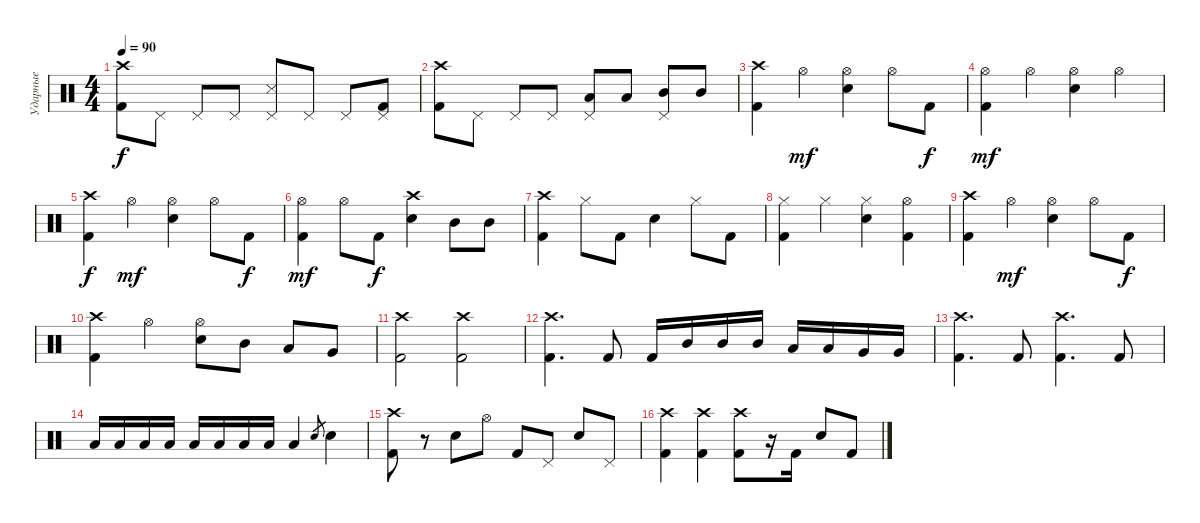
\track ("Ударные" "Ударные") {instrument percussion}
\staff {score}
\articulation defaults
\ts (4 4)
\tempo 90
\clef neutral
\ks c
("Crash high (hit)" "Kick (hit) 2").8{dy f} "Pedal Hi-Hat (hit)".8 "Pedal Hi-Hat (hit)".8 "Pedal Hi-Hat (hit)".8 ("Pedal Hi-Hat (hit)" "Snare (side stick) 3").8 "Pedal Hi-Hat (hit)".8 "Pedal Hi-Hat (hit)".8 ("Pedal Hi-Hat (hit)" "Kick (hit) 2").8 |
("Crash high (hit)" "Kick (hit) 2").8 "Pedal Hi-Hat (hit)".8 "Pedal Hi-Hat (hit)".8 "Pedal Hi-Hat (hit)".8 ("Pedal Hi-Hat (hit)" "Low Tom (hit)").8 "Low Tom (hit)".8 ("Pedal Hi-Hat (hit)" "Mid Tom (hit)").8 "Mid Tom (hit)".8 |
("Crash high (hit)" "Kick (hit) 2").4 "Hi-Hat (open)".4{dy mf} ("Hi-Hat (open)" "Snare (hit) 2").4 "Hi-Hat (open)".8 "Kick (hit) 2".8{dy f} |
("Hi-Hat (open)" "Kick (hit) 2").4{dy mf} "Hi-Hat (open)".4 ("Hi-Hat (open)" "Snare (hit) 2").4 "Hi-Hat (open)".4 |
("Crash high (hit)" "Kick (hit) 2").4{dy f} "Hi-Hat (open)".4{dy mf} ("Hi-Hat (open)" "Snare (hit) 2").4 "Hi-Hat (open)".8 "Kick (hit) 2".8{dy f} |
("Hi-Hat (open)" "Kick (hit) 2").4{dy mf} "Hi-Hat (open)".8 "Kick (hit) 2".8{dy f} ("Crash high (hit)" "Snare (hit) 2").4 "Mid Tom (hit)".8 "Mid Tom (hit)".8 |
("Crash high (hit)" "Kick (hit) 2").4 "Hi-Hat (closed)".8 "Kick (hit) 2".8 "Snare (hit) 2".4 "Hi-Hat (closed)".8 "Kick (hit) 2".8 |
("Hi-Hat (closed)" "Kick (hit) 2").4 "Hi-Hat (closed)".4 ("Hi-Hat (closed)" "Snare (hit) 2").4 ("Hi-Hat (open)" "Kick (hit) 2").4 |
("Crash high (hit)" "Kick (hit) 2").4 "Hi-Hat (open)".4{dy mf} ("Hi-Hat (open)" "Snare (hit) 2").4 "Hi-Hat (open)".8 "Kick (hit) 2".8{dy f} |
("Crash high (hit)" "Kick (hit) 2").4 "Hi-Hat (open)".4 ("Hi-Hat (open)" "Snare (hit) 2").8 "Mid Tom (hit)".8 "Low Tom (hit)".8 "Very Low Tom (hit)".8 |
("Crash high (hit)" "Kick (hit) 2").2 ("Crash high (hit)" "Kick (hit) 2").2 |
("Crash high (hit)" "Kick (hit) 2").4{d} "Kick (hit) 2".8 "Kick (hit) 2".16 "Mid Tom (hit)".16 "Mid Tom (hit)".16 "Mid Tom (hit)".16 "Low Tom (hit)".16 "Low Tom (hit)".16 "Very Low Tom (hit)".16 "Very Low Tom (hit)".16 |
("Crash high (hit)" "Kick (hit) 2").4{d} "Kick (hit) 2".8 ("Crash high (hit)" "Kick (hit) 2").4{d} "Kick (hit) 2".8 |
"Low Tom (hit)".16 "Low Tom (hit)".16 "Low Tom (hit)".16 "Low Tom (hit)".16 "Low Tom (hit)".16 "Low Tom (hit)".16 "Low Tom (hit)".16 "Low Tom (hit)".16 "Low Tom (hit)".4 "Snare (hit) 2".8{gr} "Snare (hit) 2".4 |
("Crash high (hit)" "Kick (hit) 2").8 r.8 "Snare (hit) 2".8 "Hi-Hat (open)".8 "Kick (hit) 2".8 "Pedal Hi-Hat (hit)".8 "Snare (hit) 2".8 "Pedal Hi-Hat (hit)".8 |
("Crash high (hit)" "Kick (hit) 2").4 ("Crash high (hit)" "Kick (hit) 2").4 ("Crash high (hit)" "Kick (hit) 2").8 r.16 "Kick (hit) 2".16 "Snare (hit) 2".8 "Kick (hit) 2".8
